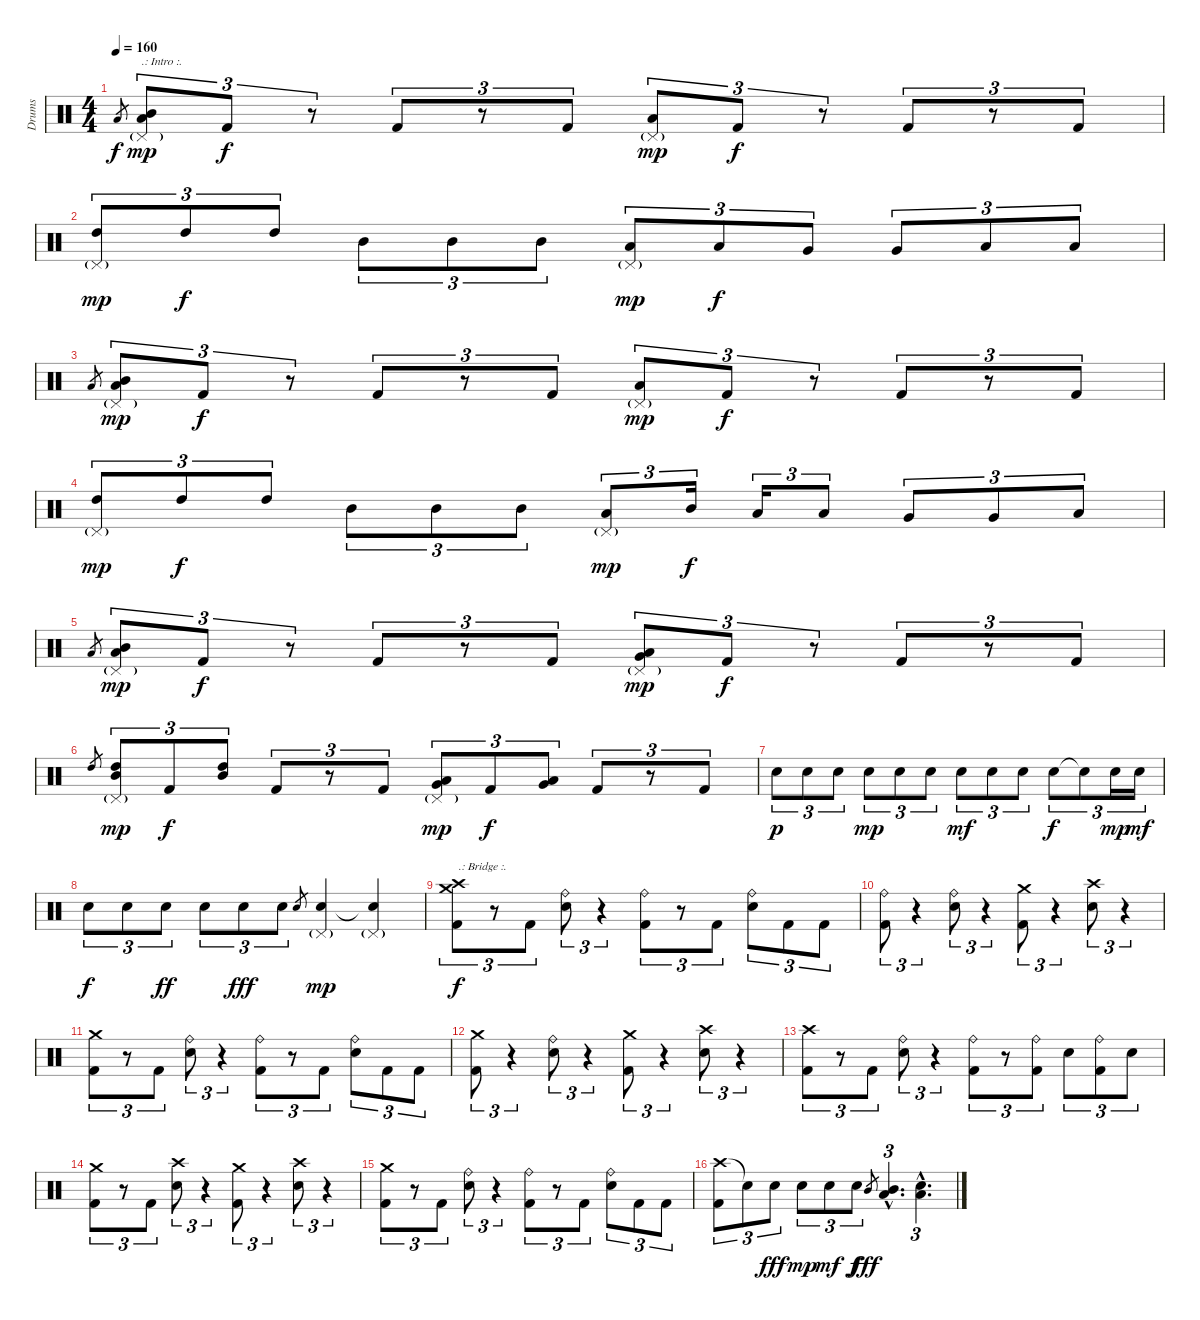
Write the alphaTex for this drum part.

\track ("Drums" "Drums") {instrument percussion}
\staff {score}
\articulation defaults
\ts (4 4)
\tempo 160
\clef neutral
\ks c "Low Tom (hit)".8{gr dy f}
("Mid Tom (hit)" "Low Tom (hit)" "Pedal Hi-Hat (hit)"{g}).8{tu (3 2) txt ".: Intro :." dy mp} "Kick (hit) 2".8{tu (3 2) dy f} r.8{tu (3 2)} "Kick (hit) 2".8{tu (3 2)} r.8{tu (3 2)} "Kick (hit) 2".8{tu (3 2)} ("Low Tom (hit)" "Pedal Hi-Hat (hit)"{g}).8{tu (3 2) dy mp} "Kick (hit) 2".8{tu (3 2) dy f} r.8{tu (3 2)} "Kick (hit) 2".8{tu (3 2)} r.8{tu (3 2)} "Kick (hit) 2".8{tu (3 2)} |
("High Tom (hit)" "Pedal Hi-Hat (hit)"{g}).8{tu (3 2) dy mp} "High Tom (hit)".8{tu (3 2) dy f} "High Tom (hit)".8{tu (3 2)} "Mid Tom (hit)".8{tu (3 2)} "Mid Tom (hit)".8{tu (3 2)} "Mid Tom (hit)".8{tu (3 2)} ("Low Tom (hit)" "Pedal Hi-Hat (hit)"{g}).8{tu (3 2) dy mp} "Low Tom (hit)".8{tu (3 2) dy f} "Very Low Tom (hit)".8{tu (3 2)} "Very Low Tom (hit)".8{tu (3 2)} "Low Floor Tom (hit)".8{tu (3 2)} "Low Floor Tom (hit)".8{tu (3 2)} |
"Low Tom (hit)".8{gr} ("Mid Tom (hit)" "Low Tom (hit)" "Pedal Hi-Hat (hit)"{g}).8{tu (3 2) dy mp} "Kick (hit) 2".8{tu (3 2) dy f} r.8{tu (3 2)} "Kick (hit) 2".8{tu (3 2)} r.8{tu (3 2)} "Kick (hit) 2".8{tu (3 2)} ("Low Tom (hit)" "Pedal Hi-Hat (hit)"{g}).8{tu (3 2) dy mp} "Kick (hit) 2".8{tu (3 2) dy f} r.8{tu (3 2)} "Kick (hit) 2".8{tu (3 2)} r.8{tu (3 2)} "Kick (hit) 2".8{tu (3 2)} |
("High Tom (hit)" "Pedal Hi-Hat (hit)"{g}).8{tu (3 2) dy mp} "High Tom (hit)".8{tu (3 2) dy f} "High Tom (hit)".8{tu (3 2)} "Mid Tom (hit)".8{tu (3 2)} "Mid Tom (hit)".8{tu (3 2)} "Mid Tom (hit)".8{tu (3 2)} ("Low Tom (hit)" "Pedal Hi-Hat (hit)"{g}).8{tu (3 2) dy mp} "Mid Tom (hit)".16{tu (3 2) dy f} "Low Tom (hit)".16{tu (3 2)} "Low Tom (hit)".8{tu (3 2)} "Very Low Tom (hit)".8{tu (3 2)} "Very Low Tom (hit)".8{tu (3 2)} "Low Floor Tom (hit)".8{tu (3 2)} |
"Low Tom (hit)".8{gr} ("Mid Tom (hit)" "Low Tom (hit)" "Pedal Hi-Hat (hit)"{g}).8{tu (3 2) dy mp} "Kick (hit) 2".8{tu (3 2) dy f} r.8{tu (3 2)} "Kick (hit) 2".8{tu (3 2)} r.8{tu (3 2)} "Kick (hit) 2".8{tu (3 2)} ("Low Tom (hit)" "Very Low Tom (hit)" "Pedal Hi-Hat (hit)"{g}).8{tu (3 2) dy mp} "Kick (hit) 2".8{tu (3 2) dy f} r.8{tu (3 2)} "Kick (hit) 2".8{tu (3 2)} r.8{tu (3 2)} "Kick (hit) 2".8{tu (3 2)} |
"High Tom (hit)".8{gr} ("High Tom (hit)" "Mid Tom (hit)" "Pedal Hi-Hat (hit)"{g}).8{tu (3 2) dy mp} "Kick (hit) 2".8{tu (3 2) dy f} ("High Tom (hit)" "Mid Tom (hit)").8{tu (3 2)} "Kick (hit) 2".8{tu (3 2)} r.8{tu (3 2)} "Kick (hit) 2".8{tu (3 2)} ("Low Tom (hit)" "Very Low Tom (hit)" "Pedal Hi-Hat (hit)"{g}).8{tu (3 2) dy mp} "Kick (hit) 2".8{tu (3 2) dy f} ("Very Low Tom (hit)" "Low Floor Tom (hit)").8{tu (3 2)} "Kick (hit) 2".8{tu (3 2)} r.8{tu (3 2)} "Kick (hit) 2".8{tu (3 2)} |
"Electric Snare (hit)".8{tu (3 2) dy p} "Electric Snare (hit)".8{tu (3 2)} "Electric Snare (hit)".8{tu (3 2)} "Electric Snare (hit)".8{tu (3 2) dy mp} "Electric Snare (hit)".8{tu (3 2)} "Electric Snare (hit)".8{tu (3 2)} "Electric Snare (hit)".8{tu (3 2) dy mf} "Electric Snare (hit)".8{tu (3 2)} "Electric Snare (hit)".8{tu (3 2)} "Electric Snare (hit)".8{tu (3 2) dy f} "Electric Snare (hit)"{t}.8{tu (3 2)} "Electric Snare (hit)".16{tu (3 2) dy mp} "Electric Snare (hit)".16{tu (3 2) dy mf} |
"Electric Snare (hit)".8{tu (3 2) dy f} "Electric Snare (hit)".8{tu (3 2)} "Electric Snare (hit)".8{tu (3 2) dy ff} "Electric Snare (hit)".8{tu (3 2)} "Electric Snare (hit)".8{tu (3 2) dy fff} "Electric Snare (hit)".8{tu (3 2)} "Electric Snare (hit)".8{gr} ("Electric Snare (hit)" "Pedal Hi-Hat (hit)"{g}).4{dy mp} ("Snare (hit)"{t} "Pedal Hi-Hat (hit)"{g}).4 |
("Crash high (hit)" "Crash medium (hit)" "Kick (hit) 2").8{tu (3 2) txt ".: Bridge :." dy f} r.8{tu (3 2)} "Kick (hit) 2".8{tu (3 2)} ("Ride (bell)" "Electric Snare (hit)").8{tu (3 2)} r.4{tu (3 2)} ("Kick (hit) 2" "Ride (bell)").8{tu (3 2)} r.8{tu (3 2)} "Kick (hit) 2".8{tu (3 2)} ("Ride (bell)" "Electric Snare (hit)").8{tu (3 2)} "Kick (hit) 2".8{tu (3 2)} "Kick (hit) 2".8{tu (3 2)} |
("Ride (bell)" "Kick (hit) 2").8{tu (3 2)} r.4{tu (3 2)} ("Ride (bell)" "Electric Snare (hit)").8{tu (3 2)} r.4{tu (3 2)} ("Crash medium (hit)" "Kick (hit) 2").8{tu (3 2)} r.4{tu (3 2)} ("Crash high (hit)" "Electric Snare (hit)").8{tu (3 2)} r.4{tu (3 2)} |
("Crash medium (hit)" "Kick (hit) 2").8{tu (3 2)} r.8{tu (3 2)} "Kick (hit) 2".8{tu (3 2)} ("Ride (bell)" "Electric Snare (hit)").8{tu (3 2)} r.4{tu (3 2)} ("Kick (hit) 2" "Ride (bell)").8{tu (3 2)} r.8{tu (3 2)} "Kick (hit) 2".8{tu (3 2)} ("Ride (bell)" "Electric Snare (hit)").8{tu (3 2)} "Kick (hit) 2".8{tu (3 2)} "Kick (hit) 2".8{tu (3 2)} |
("Crash medium (hit)" "Kick (hit) 2").8{tu (3 2)} r.4{tu (3 2)} ("Ride (bell)" "Electric Snare (hit)").8{tu (3 2)} r.4{tu (3 2)} ("Crash medium (hit)" "Kick (hit) 2").8{tu (3 2)} r.4{tu (3 2)} ("Crash high (hit)" "Electric Snare (hit)").8{tu (3 2)} r.4{tu (3 2)} |
("Crash high (hit)" "Kick (hit) 2").8{tu (3 2)} r.8{tu (3 2)} "Kick (hit) 2".8{tu (3 2)} ("Ride (bell)" "Electric Snare (hit)").8{tu (3 2)} r.4{tu (3 2)} ("Kick (hit) 2" "Ride (bell)").8{tu (3 2)} r.8{tu (3 2)} ("Ride (bell)" "Kick (hit) 2").8{tu (3 2)} "Electric Snare (hit)".8{tu (3 2)} ("Kick (hit) 2" "Ride (bell)").8{tu (3 2)} "Electric Snare (hit)".8{tu (3 2)} |
("Crash medium (hit)" "Kick (hit) 2").8{tu (3 2)} r.8{tu (3 2)} "Kick (hit) 2".8{tu (3 2)} ("Crash high (hit)" "Electric Snare (hit)").8{tu (3 2)} r.4{tu (3 2)} ("Crash medium (hit)" "Kick (hit) 2").8{tu (3 2)} r.4{tu (3 2)} ("Crash high (hit)" "Electric Snare (hit)").8{tu (3 2)} r.4{tu (3 2)} |
("Crash medium (hit)" "Kick (hit) 2").8{tu (3 2)} r.8{tu (3 2)} "Kick (hit) 2".8{tu (3 2)} ("Ride (bell)" "Electric Snare (hit)").8{tu (3 2)} r.4{tu (3 2)} ("Kick (hit) 2" "Ride (bell)").8{tu (3 2)} r.8{tu (3 2)} "Kick (hit) 2".8{tu (3 2)} ("Ride (bell)" "Electric Snare (hit)").8{tu (3 2)} "Kick (hit) 2".8{tu (3 2)} "Kick (hit) 2".8{tu (3 2)} |
("Crash high (hit)" "Kick (hit) 2").8{tu (3 2)} "Snare (hit)"{t}.8{tu (3 2)} "Electric Snare (hit)".8{tu (3 2) dy fff} "Electric Snare (hit)".8{tu (3 2) dy mp} "Electric Snare (hit)".8{tu (3 2) dy mf} "Electric Snare (hit)".8{tu (3 2) dy f} "Mid Tom (hit)".8{gr dy fff} ("Mid Tom (hit)"{hac} "Low Tom (hit)"{hac}).4{d tu (3 2)} ("Electric Snare (hit)"{hac} "Low Floor Tom (hit)"{hac}).4{d tu (3 2)}
